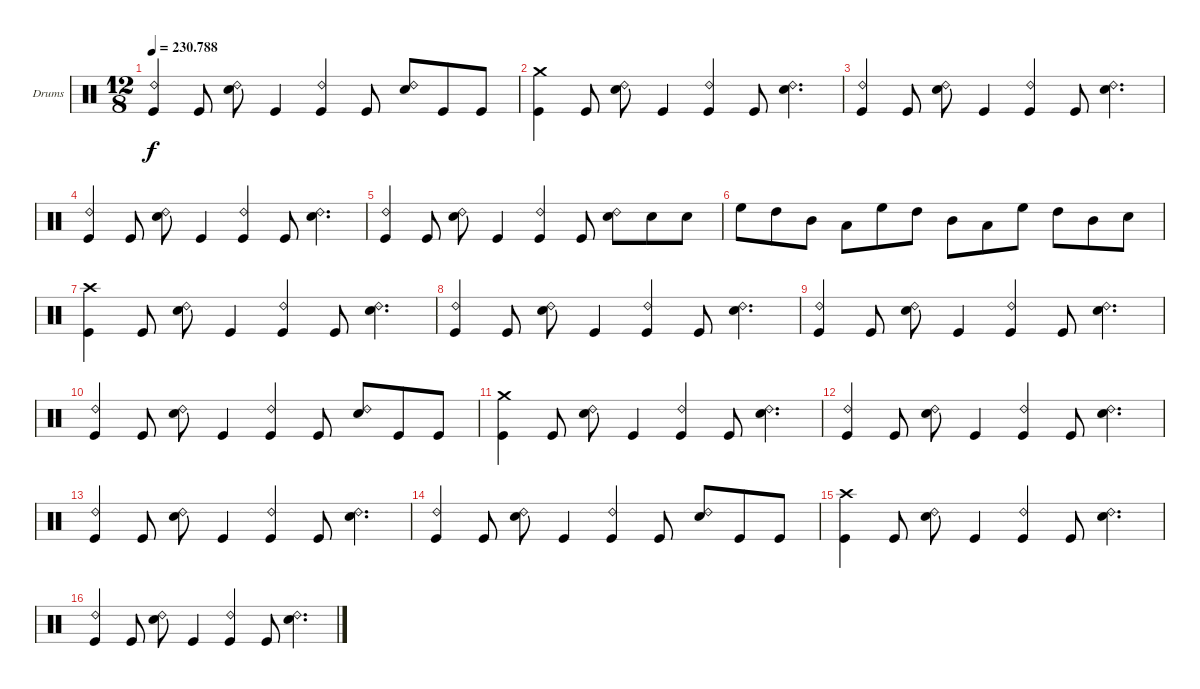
\bracketExtendMode groupsimilarinstruments
\firstSystemTrackNameOrientation horizontal
\otherSystemsTrackNameOrientation horizontal
\track ("Ударные" "Drums") {instrument percussion}
\staff {score}
\articulation defaults
\ts (12 8)
\tempo
230.788
\accidentals auto
\clef neutral
\ottava regular
\simile none
\ks c
("Kick (hit)" "Ride (bell) 2").4{dy f} "Kick (hit)".8 ("Ride (bell) 2" "Snare (hit) 2").8 "Kick (hit)".4 ("Ride (bell) 2" "Kick (hit)").4 "Kick (hit)".8 ("Ride (bell) 2" "Snare (hit) 2").8 "Kick (hit)".8 "Kick (hit)".8 |
("Crash medium (hit)" "Kick (hit)").4 "Kick (hit)".8 ("Ride (bell) 2" "Snare (hit) 2").8 "Kick (hit)".4 ("Ride (bell) 2" "Kick (hit)").4 "Kick (hit)".8 ("Ride (bell) 2" "Snare (hit) 2").4{d} |
("Ride (bell) 2" "Kick (hit)").4 "Kick (hit)".8 ("Ride (bell) 2" "Snare (hit) 2").8 "Kick (hit)".4 ("Ride (bell) 2" "Kick (hit)").4 "Kick (hit)".8 ("Ride (bell) 2" "Snare (hit) 2").4{d} |
("Kick (hit)" "Ride (bell) 2").4 "Kick (hit)".8 ("Ride (bell) 2" "Snare (hit) 2").8 "Kick (hit)".4 ("Kick (hit)" "Ride (bell) 2").4 "Kick (hit)".8 ("Ride (bell) 2" "Snare (hit) 2").4{d} |
("Kick (hit)" "Ride (bell) 2").4 "Kick (hit)".8 ("Ride (bell) 2" "Snare (hit) 2").8 "Kick (hit)".4 ("Ride (bell) 2" "Kick (hit)").4 "Kick (hit)".8 ("Ride (bell) 2" "Snare (hit) 2").8 "Snare (hit) 2".8 "Snare (hit) 2".8 |
"High Floor Tom (hit)".8 "High Tom (hit)".8 "Mid Tom (hit)".8 "Low Tom (hit)".8 "High Floor Tom (hit)".8 "High Tom (hit)".8 "Mid Tom (hit)".8 "Low Tom (hit)".8 "High Floor Tom (hit)".8 "High Tom (hit)".8 "Mid Tom (hit)".8 "Snare (hit) 2".8 |
("Crash high (hit)" "Kick (hit)").4 "Kick (hit)".8 ("Ride (bell) 2" "Snare (hit) 2").8 "Kick (hit)".4 ("Ride (bell) 2" "Kick (hit)").4 "Kick (hit)".8 ("Ride (bell) 2" "Snare (hit) 2").4{d} |
("Ride (bell) 2" "Kick (hit)").4 "Kick (hit)".8 ("Ride (bell) 2" "Snare (hit) 2").8 "Kick (hit)".4 ("Ride (bell) 2" "Kick (hit)").4 "Kick (hit)".8 ("Ride (bell) 2" "Snare (hit) 2").4{d} |
("Kick (hit)" "Ride (bell) 2").4 "Kick (hit)".8 ("Ride (bell) 2" "Snare (hit) 2").8 "Kick (hit)".4 ("Kick (hit)" "Ride (bell) 2").4 "Kick (hit)".8 ("Ride (bell) 2" "Snare (hit) 2").4{d} |
("Kick (hit)" "Ride (bell) 2").4 "Kick (hit)".8 ("Ride (bell) 2" "Snare (hit) 2").8 "Kick (hit)".4 ("Ride (bell) 2" "Kick (hit)").4 "Kick (hit)".8 ("Ride (bell) 2" "Snare (hit) 2").8 "Kick (hit)".8 "Kick (hit)".8 |
("Crash medium (hit)" "Kick (hit)").4 "Kick (hit)".8 ("Ride (bell) 2" "Snare (hit) 2").8 "Kick (hit)".4 ("Ride (bell) 2" "Kick (hit)").4 "Kick (hit)".8 ("Ride (bell) 2" "Snare (hit) 2").4{d} |
("Ride (bell) 2" "Kick (hit)").4 "Kick (hit)".8 ("Ride (bell) 2" "Snare (hit) 2").8 "Kick (hit)".4 ("Ride (bell) 2" "Kick (hit)").4 "Kick (hit)".8 ("Ride (bell) 2" "Snare (hit) 2").4{d} |
("Kick (hit)" "Ride (bell) 2").4 "Kick (hit)".8 ("Ride (bell) 2" "Snare (hit) 2").8 "Kick (hit)".4 ("Kick (hit)" "Ride (bell) 2").4 "Kick (hit)".8 ("Ride (bell) 2" "Snare (hit) 2").4{d} |
("Kick (hit)" "Ride (bell) 2").4 "Kick (hit)".8 ("Ride (bell) 2" "Snare (hit) 2").8 "Kick (hit)".4 ("Ride (bell) 2" "Kick (hit)").4 "Kick (hit)".8 ("Ride (bell) 2" "Snare (hit) 2").8 "Kick (hit)".8 "Kick (hit)".8 |
("Crash high (hit)" "Kick (hit)").4 "Kick (hit)".8 ("Ride (bell) 2" "Snare (hit) 2").8 "Kick (hit)".4 ("Ride (bell) 2" "Kick (hit)").4 "Kick (hit)".8 ("Ride (bell) 2" "Snare (hit) 2").4{d} |
("Ride (bell) 2" "Kick (hit)").4 "Kick (hit)".8 ("Ride (bell) 2" "Snare (hit) 2").8 "Kick (hit)".4 ("Ride (bell) 2" "Kick (hit)").4 "Kick (hit)".8 ("Ride (bell) 2" "Snare (hit) 2").4{d}
